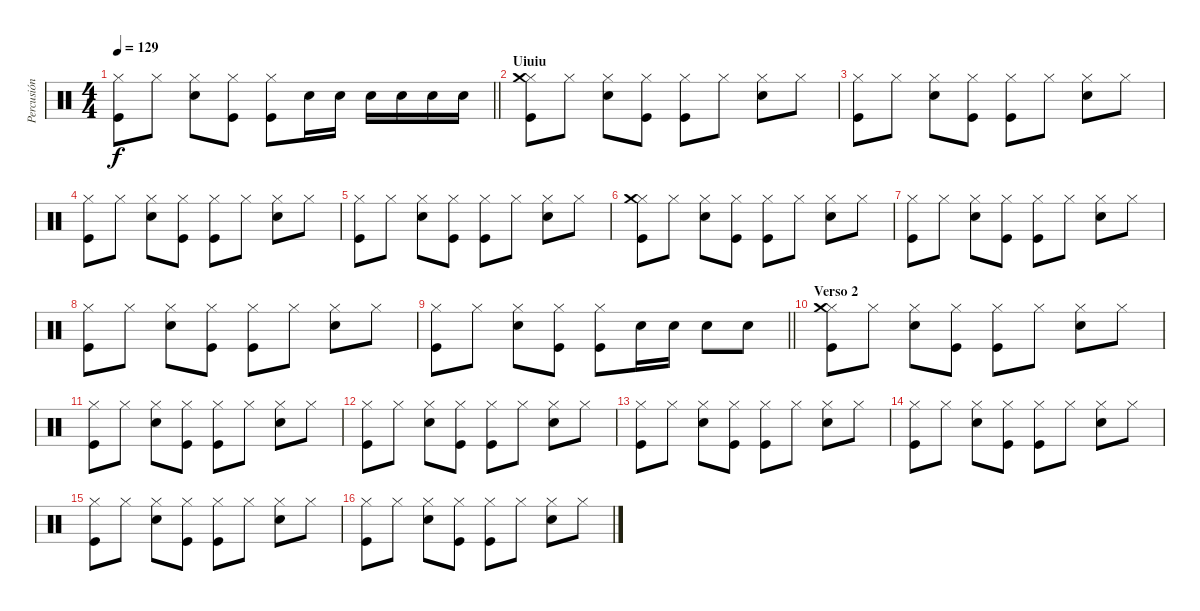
\track ("Percusión" "Percusión") {instrument percussion}
\staff {score}
\articulation defaults
\ts (4 4)
\tempo 129
\clef neutral
\barLineRight lightlight
\ks c
("Hi-Hat (closed)" "Kick (hit)").8{dy f} "Hi-Hat (closed)".8 ("Hi-Hat (closed)" "Electric Snare (hit)").8 ("Hi-Hat (closed)" "Kick (hit)").8 ("Hi-Hat (closed)" "Kick (hit)").8 "Electric Snare (hit)".16 "Electric Snare (hit)".16 "Electric Snare (hit)".16 "Electric Snare (hit)".16 "Electric Snare (hit)".16 "Electric Snare (hit)".16 |
\section ("" "Uiuiu")
("Hi-Hat (closed)" "Kick (hit)" "Crash medium (hit)").8 "Hi-Hat (closed)".8 ("Hi-Hat (closed)" "Electric Snare (hit)").8 ("Hi-Hat (closed)" "Kick (hit)").8 ("Hi-Hat (closed)" "Kick (hit)").8 "Hi-Hat (closed)".8 ("Hi-Hat (closed)" "Electric Snare (hit)").8 "Hi-Hat (closed)".8 |
("Hi-Hat (closed)" "Kick (hit)").8 "Hi-Hat (closed)".8 ("Hi-Hat (closed)" "Electric Snare (hit)").8 ("Hi-Hat (closed)" "Kick (hit)").8 ("Hi-Hat (closed)" "Kick (hit)").8 "Hi-Hat (closed)".8 ("Hi-Hat (closed)" "Electric Snare (hit)").8 "Hi-Hat (closed)".8 |
("Hi-Hat (closed)" "Kick (hit)").8 "Hi-Hat (closed)".8 ("Hi-Hat (closed)" "Electric Snare (hit)").8 ("Hi-Hat (closed)" "Kick (hit)").8 ("Hi-Hat (closed)" "Kick (hit)").8 "Hi-Hat (closed)".8 ("Hi-Hat (closed)" "Electric Snare (hit)").8 "Hi-Hat (closed)".8 |
("Hi-Hat (closed)" "Kick (hit)").8 "Hi-Hat (closed)".8 ("Hi-Hat (closed)" "Electric Snare (hit)").8 ("Hi-Hat (closed)" "Kick (hit)").8 ("Hi-Hat (closed)" "Kick (hit)").8 "Hi-Hat (closed)".8 ("Hi-Hat (closed)" "Electric Snare (hit)").8 "Hi-Hat (closed)".8 |
("Hi-Hat (closed)" "Kick (hit)" "Crash medium (hit)").8 "Hi-Hat (closed)".8 ("Hi-Hat (closed)" "Electric Snare (hit)").8 ("Hi-Hat (closed)" "Kick (hit)").8 ("Hi-Hat (closed)" "Kick (hit)").8 "Hi-Hat (closed)".8 ("Hi-Hat (closed)" "Electric Snare (hit)").8 "Hi-Hat (closed)".8 |
("Hi-Hat (closed)" "Kick (hit)").8 "Hi-Hat (closed)".8 ("Hi-Hat (closed)" "Electric Snare (hit)").8 ("Hi-Hat (closed)" "Kick (hit)").8 ("Hi-Hat (closed)" "Kick (hit)").8 "Hi-Hat (closed)".8 ("Hi-Hat (closed)" "Electric Snare (hit)").8 "Hi-Hat (closed)".8 |
("Hi-Hat (closed)" "Kick (hit)").8 "Hi-Hat (closed)".8 ("Hi-Hat (closed)" "Electric Snare (hit)").8 ("Hi-Hat (closed)" "Kick (hit)").8 ("Hi-Hat (closed)" "Kick (hit)").8 "Hi-Hat (closed)".8 ("Hi-Hat (closed)" "Electric Snare (hit)").8 "Hi-Hat (closed)".8 |
\barLineRight lightlight
("Hi-Hat (closed)" "Kick (hit)").8 "Hi-Hat (closed)".8 ("Hi-Hat (closed)" "Electric Snare (hit)").8 ("Hi-Hat (closed)" "Kick (hit)").8 ("Hi-Hat (closed)" "Kick (hit)").8 "Electric Snare (hit)".16 "Electric Snare (hit)".16 "Electric Snare (hit)".8 "Electric Snare (hit)".8 |
\section ("" "Verso 2")
("Hi-Hat (closed)" "Kick (hit)" "Crash medium (hit)").8 "Hi-Hat (closed)".8 ("Hi-Hat (closed)" "Electric Snare (hit)").8 ("Hi-Hat (closed)" "Kick (hit)").8 ("Hi-Hat (closed)" "Kick (hit)").8 "Hi-Hat (closed)".8 ("Hi-Hat (closed)" "Electric Snare (hit)").8 "Hi-Hat (closed)".8 |
("Hi-Hat (closed)" "Kick (hit)").8 "Hi-Hat (closed)".8 ("Hi-Hat (closed)" "Electric Snare (hit)").8 ("Hi-Hat (closed)" "Kick (hit)").8 ("Hi-Hat (closed)" "Kick (hit)").8 "Hi-Hat (closed)".8 ("Hi-Hat (closed)" "Electric Snare (hit)").8 "Hi-Hat (closed)".8 |
("Hi-Hat (closed)" "Kick (hit)").8 "Hi-Hat (closed)".8 ("Hi-Hat (closed)" "Electric Snare (hit)").8 ("Hi-Hat (closed)" "Kick (hit)").8 ("Hi-Hat (closed)" "Kick (hit)").8 "Hi-Hat (closed)".8 ("Hi-Hat (closed)" "Electric Snare (hit)").8 "Hi-Hat (closed)".8 |
("Hi-Hat (closed)" "Kick (hit)").8 "Hi-Hat (closed)".8 ("Hi-Hat (closed)" "Electric Snare (hit)").8 ("Hi-Hat (closed)" "Kick (hit)").8 ("Hi-Hat (closed)" "Kick (hit)").8 "Hi-Hat (closed)".8 ("Hi-Hat (closed)" "Electric Snare (hit)").8 "Hi-Hat (closed)".8 |
("Hi-Hat (closed)" "Kick (hit)").8 "Hi-Hat (closed)".8 ("Hi-Hat (closed)" "Electric Snare (hit)").8 ("Hi-Hat (closed)" "Kick (hit)").8 ("Hi-Hat (closed)" "Kick (hit)").8 "Hi-Hat (closed)".8 ("Hi-Hat (closed)" "Electric Snare (hit)").8 "Hi-Hat (closed)".8 |
("Hi-Hat (closed)" "Kick (hit)").8 "Hi-Hat (closed)".8 ("Hi-Hat (closed)" "Electric Snare (hit)").8 ("Hi-Hat (closed)" "Kick (hit)").8 ("Hi-Hat (closed)" "Kick (hit)").8 "Hi-Hat (closed)".8 ("Hi-Hat (closed)" "Electric Snare (hit)").8 "Hi-Hat (closed)".8 |
("Hi-Hat (closed)" "Kick (hit)").8 "Hi-Hat (closed)".8 ("Hi-Hat (closed)" "Electric Snare (hit)").8 ("Hi-Hat (closed)" "Kick (hit)").8 ("Hi-Hat (closed)" "Kick (hit)").8 "Hi-Hat (closed)".8 ("Hi-Hat (closed)" "Electric Snare (hit)").8 "Hi-Hat (closed)".8
